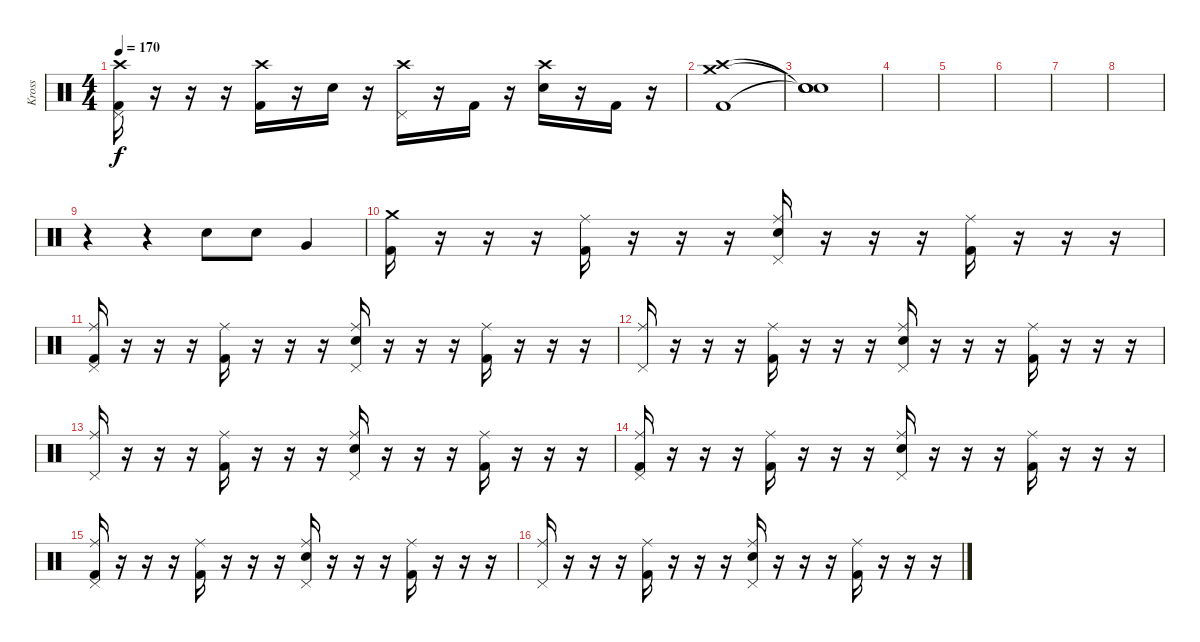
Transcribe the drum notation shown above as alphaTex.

\track ("Kross" "Kross") {instrument percussion}
\staff {score}
\articulation defaults
\ts (4 4)
\tempo 170
\clef neutral
\ks c
("Crash high (hit)" "Pedal Hi-Hat (hit)" "Kick (hit) 2").16{dy f} r.16 r.16 r.16 ("Crash high (hit)" "Kick (hit) 2").16 r.16 "Electric Snare (hit)".16 r.16 ("Crash high (hit)" "Pedal Hi-Hat (hit)").16 r.16 "Kick (hit) 2".16 r.16 ("Crash high (hit)" "Electric Snare (hit)").16 r.16 "Kick (hit) 2".16 r.16 |
("Crash high (hit)" "Crash medium (hit)" "Kick (hit) 2").1 |
("Snare (hit)"{t} "Snare (hit)"{t} "Snare (hit)"{t}).1 |
|
|
|
|
|
r.4 r.4 "Electric Snare (hit)".8 "Electric Snare (hit)".8 "Very Low Tom (hit)".4 |
("Crash medium (hit)" "Kick (hit) 2").16 r.16 r.16 r.16 ("Ride (middle)" "Kick (hit) 2").16 r.16 r.16 r.16 ("Pedal Hi-Hat (hit)" "Ride (middle)" "Electric Snare (hit)").16 r.16 r.16 r.16 ("Ride (middle)" "Kick (hit) 2").16 r.16 r.16 r.16 |
("Pedal Hi-Hat (hit)" "Ride (middle)" "Kick (hit) 2").16 r.16 r.16 r.16 ("Ride (middle)" "Kick (hit) 2").16 r.16 r.16 r.16 ("Pedal Hi-Hat (hit)" "Ride (middle)" "Electric Snare (hit)").16 r.16 r.16 r.16 ("Ride (middle)" "Kick (hit) 2").16 r.16 r.16 r.16 |
("Pedal Hi-Hat (hit)" "Ride (middle)").16 r.16 r.16 r.16 ("Ride (middle)" "Kick (hit) 2").16 r.16 r.16 r.16 ("Pedal Hi-Hat (hit)" "Ride (middle)" "Electric Snare (hit)").16 r.16 r.16 r.16 ("Ride (middle)" "Kick (hit) 2").16 r.16 r.16 r.16 |
("Pedal Hi-Hat (hit)" "Ride (middle)").16 r.16 r.16 r.16 ("Ride (middle)" "Kick (hit) 2").16 r.16 r.16 r.16 ("Pedal Hi-Hat (hit)" "Ride (middle)" "Electric Snare (hit)").16 r.16 r.16 r.16 ("Ride (middle)" "Kick (hit) 2").16 r.16 r.16 r.16 |
("Pedal Hi-Hat (hit)" "Ride (middle)" "Kick (hit) 2").16 r.16 r.16 r.16 ("Ride (middle)" "Kick (hit) 2").16 r.16 r.16 r.16 ("Pedal Hi-Hat (hit)" "Ride (middle)" "Electric Snare (hit)").16 r.16 r.16 r.16 ("Ride (middle)" "Kick (hit) 2").16 r.16 r.16 r.16 |
("Pedal Hi-Hat (hit)" "Ride (middle)" "Kick (hit) 2").16 r.16 r.16 r.16 ("Ride (middle)" "Kick (hit) 2").16 r.16 r.16 r.16 ("Pedal Hi-Hat (hit)" "Ride (middle)" "Electric Snare (hit)").16 r.16 r.16 r.16 ("Ride (middle)" "Kick (hit) 2").16 r.16 r.16 r.16 |
("Pedal Hi-Hat (hit)" "Ride (middle)").16 r.16 r.16 r.16 ("Ride (middle)" "Kick (hit) 2").16 r.16 r.16 r.16 ("Pedal Hi-Hat (hit)" "Ride (middle)" "Electric Snare (hit)").16 r.16 r.16 r.16 ("Ride (middle)" "Kick (hit) 2").16 r.16 r.16 r.16
